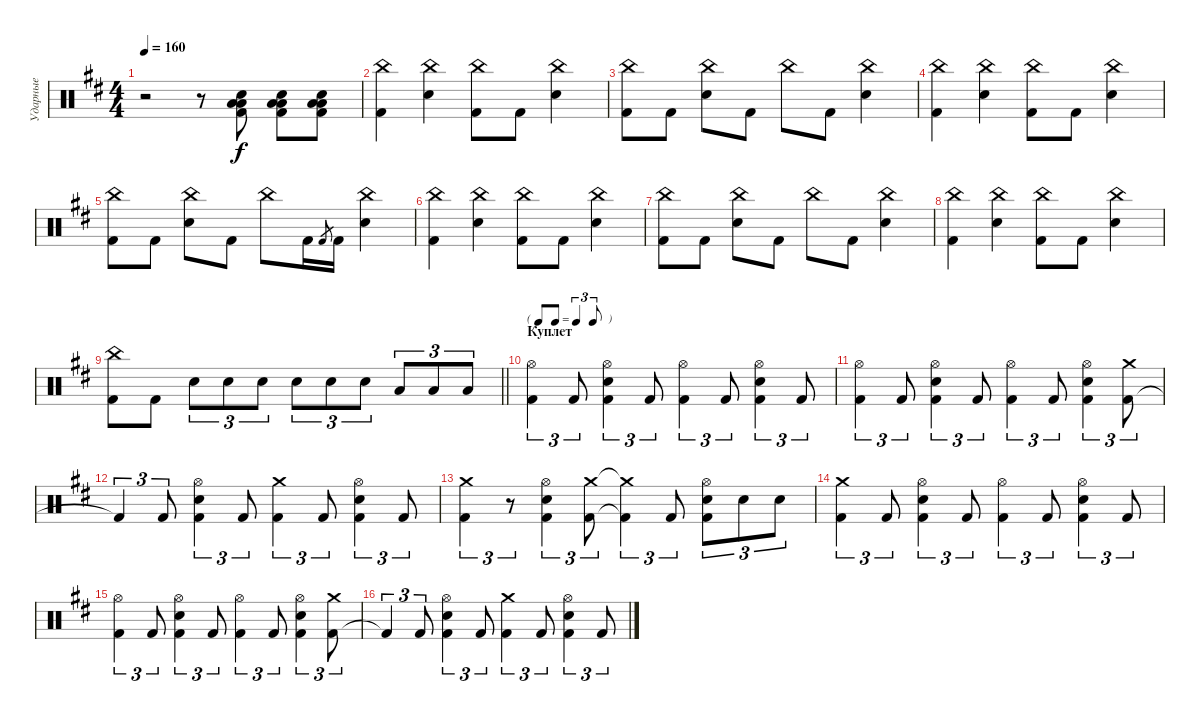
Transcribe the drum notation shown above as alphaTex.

\track ("Ударные" "Ударные") {instrument percussion}
\staff {score}
\articulation defaults
\ts (4 4)
\tempo 160
\clef neutral
\ks bminor
r.2{dy f} r.8 ("Low Floor Tom (hit)" "Kick (hit) 2" "Low Tom (hit)" "Snare (hit) 2").8 ("Low Floor Tom (hit)" "Kick (hit) 2" "Low Tom (hit)" "Snare (hit) 2").8 ("Low Floor Tom (hit)" "Kick (hit) 2" "Low Tom (hit)" "Snare (hit) 2").8 |
("Kick (hit) 2" "China (hit)").4 ("Snare (hit) 2" "China (hit)").4 ("Kick (hit) 2" "China (hit)").8 "Kick (hit) 2".8 ("Snare (hit) 2" "China (hit)").4 |
("Kick (hit) 2" "China (hit)").8 "Kick (hit) 2".8 ("China (hit)" "Snare (hit) 2").8 "Kick (hit) 2".8 "China (hit)".8 "Kick (hit) 2".8 ("China (hit)" "Snare (hit) 2").4 |
("Kick (hit) 2" "China (hit)").4 ("Snare (hit) 2" "China (hit)").4 ("Kick (hit) 2" "China (hit)").8 "Kick (hit) 2".8 ("Snare (hit) 2" "China (hit)").4 |
("Kick (hit) 2" "China (hit)").8 "Kick (hit) 2".8 ("China (hit)" "Snare (hit) 2").8 "Kick (hit) 2".8 "China (hit)".8 "Kick (hit) 2".16 "Kick (hit) 2".8{gr} "Kick (hit) 2".16 ("China (hit)" "Snare (hit) 2").4 |
("Kick (hit) 2" "China (hit)").4 ("Snare (hit) 2" "China (hit)").4 ("Kick (hit) 2" "China (hit)").8 "Kick (hit) 2".8 ("Snare (hit) 2" "China (hit)").4 |
("Kick (hit) 2" "China (hit)").8 "Kick (hit) 2".8 ("China (hit)" "Snare (hit) 2").8 "Kick (hit) 2".8 "China (hit)".8 "Kick (hit) 2".8 ("China (hit)" "Snare (hit) 2").4 |
("Kick (hit) 2" "China (hit)").4 ("Snare (hit) 2" "China (hit)").4 ("Kick (hit) 2" "China (hit)").8 "Kick (hit) 2".8 ("Snare (hit) 2" "China (hit)").4 |
\barLineRight lightlight
("Kick (hit) 2" "China (hit)").8 "Kick (hit) 2".8 "Snare (hit) 2".8{tu (3 2)} "Snare (hit) 2".8{tu (3 2)} "Snare (hit) 2".8{tu (3 2)} "Snare (hit) 2".8{tu (3 2)} "Snare (hit) 2".8{tu (3 2)} "Snare (hit) 2".8{tu (3 2)} "Low Tom (hit)".8{tu (3 2)} "Low Tom (hit)".8{tu (3 2)} "Low Tom (hit)".8{tu (3 2)} |
\tf triplet8th
\section ("" "Куплет")
("Hi-Hat (open)" "Kick (hit) 2").4{tu (3 2)} "Kick (hit) 2".8{tu (3 2)} ("Hi-Hat (open)" "Kick (hit) 2" "Snare (hit) 2").4{tu (3 2)} "Kick (hit) 2".8{tu (3 2)} ("Hi-Hat (open)" "Kick (hit) 2").4{tu (3 2)} "Kick (hit) 2".8{tu (3 2)} ("Kick (hit) 2" "Hi-Hat (open)" "Snare (hit) 2").4{tu (3 2)} "Kick (hit) 2".8{tu (3 2)} |
("Hi-Hat (open)" "Kick (hit) 2").4{tu (3 2)} "Kick (hit) 2".8{tu (3 2)} ("Hi-Hat (open)" "Kick (hit) 2" "Snare (hit) 2").4{tu (3 2)} "Kick (hit) 2".8{tu (3 2)} ("Hi-Hat (open)" "Kick (hit) 2").4{tu (3 2)} "Kick (hit) 2".8{tu (3 2)} ("Kick (hit) 2" "Hi-Hat (open)" "Snare (hit) 2").4{tu (3 2)} ("Kick (hit) 2" "Crash medium (hit)").8{tu (3 2)} |
"Kick (hit) 2"{t}.4{tu (3 2)} "Kick (hit) 2".8{tu (3 2)} ("Hi-Hat (open)" "Kick (hit) 2" "Snare (hit) 2").4{tu (3 2)} "Kick (hit) 2".8{tu (3 2)} ("Crash medium (hit)" "Kick (hit) 2").4{tu (3 2)} "Kick (hit) 2".8{tu (3 2)} ("Kick (hit) 2" "Hi-Hat (open)" "Snare (hit) 2").4{tu (3 2)} "Kick (hit) 2".8{tu (3 2)} |
("Crash medium (hit)" "Kick (hit) 2").4{tu (3 2)} r.8{tu (3 2)} ("Hi-Hat (open)" "Kick (hit) 2" "Snare (hit) 2").4{tu (3 2)} ("Crash medium (hit)" "Kick (hit) 2").8{tu (3 2)} ("Crash medium (hit)"{t} "Kick (hit) 2"{t}).4{tu (3 2)} "Kick (hit) 2".8{tu (3 2)} ("Kick (hit) 2" "Hi-Hat (open)" "Snare (hit) 2").8{tu (3 2)} "Snare (hit) 2".8{tu (3 2)} "Snare (hit) 2".8{tu (3 2)} |
("Crash medium (hit)" "Kick (hit) 2").4{tu (3 2)} "Kick (hit) 2".8{tu (3 2)} ("Hi-Hat (open)" "Kick (hit) 2" "Snare (hit) 2").4{tu (3 2)} "Kick (hit) 2".8{tu (3 2)} ("Hi-Hat (open)" "Kick (hit) 2").4{tu (3 2)} "Kick (hit) 2".8{tu (3 2)} ("Kick (hit) 2" "Hi-Hat (open)" "Snare (hit) 2").4{tu (3 2)} "Kick (hit) 2".8{tu (3 2)} |
("Hi-Hat (open)" "Kick (hit) 2").4{tu (3 2)} "Kick (hit) 2".8{tu (3 2)} ("Hi-Hat (open)" "Kick (hit) 2" "Snare (hit) 2").4{tu (3 2)} "Kick (hit) 2".8{tu (3 2)} ("Hi-Hat (open)" "Kick (hit) 2").4{tu (3 2)} "Kick (hit) 2".8{tu (3 2)} ("Kick (hit) 2" "Hi-Hat (open)" "Snare (hit) 2").4{tu (3 2)} ("Kick (hit) 2" "Crash medium (hit)").8{tu (3 2)} |
"Kick (hit) 2"{t}.4{tu (3 2)} "Kick (hit) 2".8{tu (3 2)} ("Hi-Hat (open)" "Kick (hit) 2" "Snare (hit) 2").4{tu (3 2)} "Kick (hit) 2".8{tu (3 2)} ("Crash medium (hit)" "Kick (hit) 2").4{tu (3 2)} "Kick (hit) 2".8{tu (3 2)} ("Kick (hit) 2" "Hi-Hat (open)" "Snare (hit) 2").4{tu (3 2)} "Kick (hit) 2".8{tu (3 2)}
